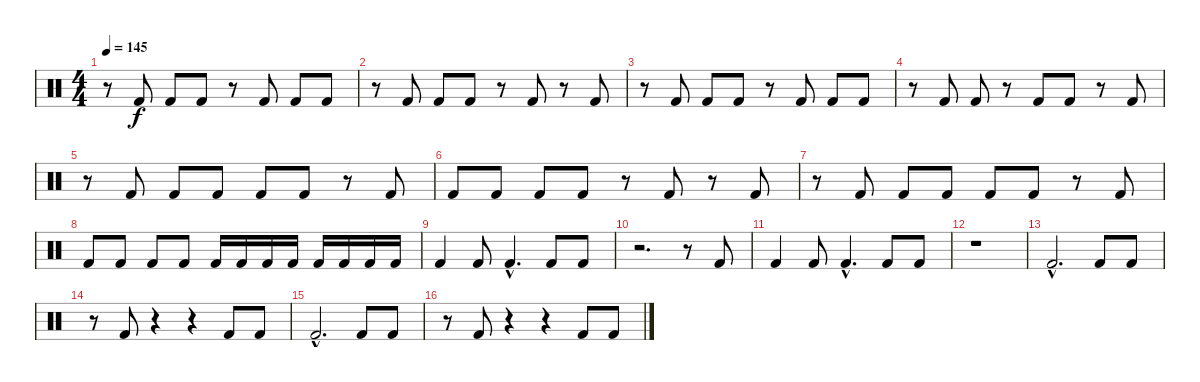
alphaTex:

\track "" {instrument percussion}
\staff {score}
\articulation defaults
\ts (4 4)
\tempo 145
\clef neutral
\ks c
r.8{dy f} "Kick (hit) 2".8 "Kick (hit) 2".8 "Kick (hit) 2".8 r.8 "Kick (hit) 2".8 "Kick (hit) 2".8 "Kick (hit) 2".8 |
r.8 "Kick (hit) 2".8 "Kick (hit) 2".8 "Kick (hit) 2".8 r.8 "Kick (hit) 2".8 r.8 "Kick (hit) 2".8 |
r.8 "Kick (hit) 2".8 "Kick (hit) 2".8 "Kick (hit) 2".8 r.8 "Kick (hit) 2".8 "Kick (hit) 2".8 "Kick (hit) 2".8 |
r.8 "Kick (hit) 2".8 "Kick (hit) 2".8 r.8 "Kick (hit) 2".8 "Kick (hit) 2".8 r.8 "Kick (hit) 2".8 |
r.8 "Kick (hit) 2".8 "Kick (hit) 2".8 "Kick (hit) 2".8 "Kick (hit) 2".8 "Kick (hit) 2".8 r.8 "Kick (hit) 2".8 |
"Kick (hit) 2".8 "Kick (hit) 2".8 "Kick (hit) 2".8 "Kick (hit) 2".8 r.8 "Kick (hit) 2".8 r.8 "Kick (hit) 2".8 |
r.8 "Kick (hit) 2".8 "Kick (hit) 2".8 "Kick (hit) 2".8 "Kick (hit) 2".8 "Kick (hit) 2".8 r.8 "Kick (hit) 2".8 |
"Kick (hit) 2".8 "Kick (hit) 2".8 "Kick (hit) 2".8 "Kick (hit) 2".8 "Kick (hit) 2".16 "Kick (hit) 2".16 "Kick (hit) 2".16 "Kick (hit) 2".16 "Kick (hit) 2".16 "Kick (hit) 2".16 "Kick (hit) 2".16 "Kick (hit) 2".16 |
"Kick (hit) 2".4 "Kick (hit) 2".8 "Kick (hit) 2"{hac}.4{d} "Kick (hit) 2".8 "Kick (hit) 2".8 |
r.2{d} r.8 "Kick (hit) 2".8 |
"Kick (hit) 2".4 "Kick (hit) 2".8 "Kick (hit) 2"{hac}.4{d} "Kick (hit) 2".8 "Kick (hit) 2".8 |
r.1 |
"Kick (hit) 2"{hac}.2{d} "Kick (hit) 2".8 "Kick (hit) 2".8 |
r.8 "Kick (hit) 2".8 r.4 r.4 "Kick (hit) 2".8 "Kick (hit) 2".8 |
"Kick (hit) 2"{hac}.2{d} "Kick (hit) 2".8 "Kick (hit) 2".8 |
r.8 "Kick (hit) 2".8 r.4 r.4 "Kick (hit) 2".8 "Kick (hit) 2".8
